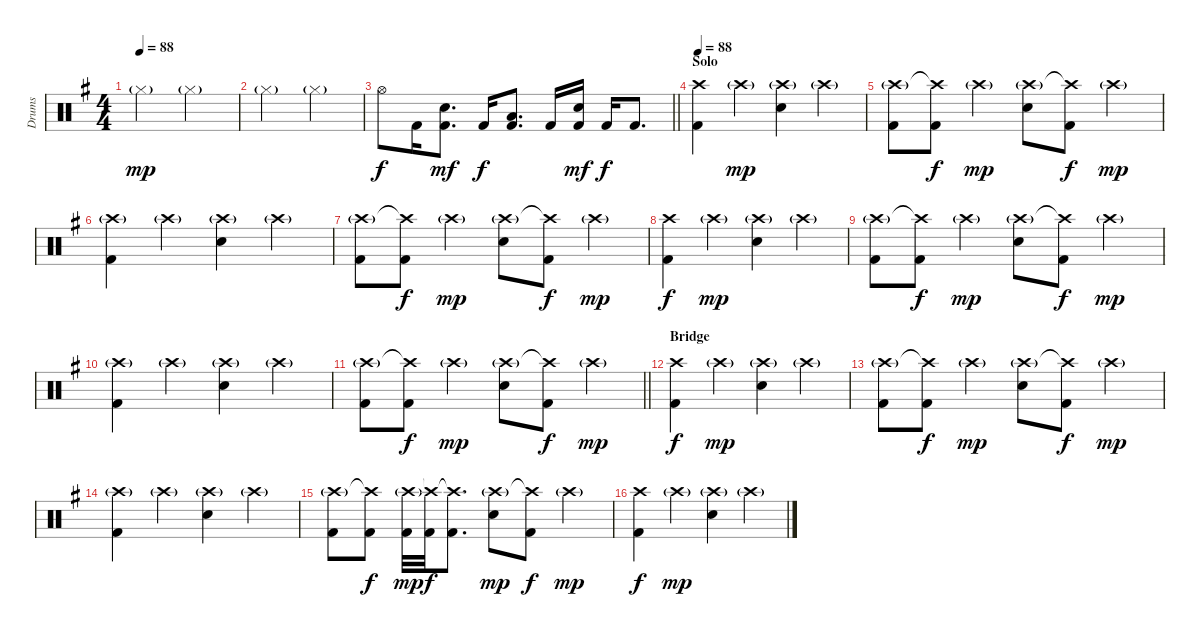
\track ("Drums" "Drums") {instrument percussion}
\staff {score}
\articulation defaults
\ts (4 4)
\tempo 88
\clef neutral
\ks g "Hi-Hat (closed)"{g}.2{dy mp} "Hi-Hat (closed)"{g}.2
|
"Hi-Hat (closed)"{g}.2 "Hi-Hat (closed)"{g}.2 |
\barLineRight lightlight "Hi-Hat (open)".8{dy f} "Kick (hit) 2".16
("Electric Snare (hit)" "Kick (hit) 2").8{d bd 240 dy mf} "Kick (hit) 2".16{dy f} ("Low Floor Tom (hit)" "Kick (hit) 2").8{d bd 240} "Kick (hit) 2".16 ("Electric Snare (hit)" "Kick (hit) 2").16{bd 240 dy mf} "Kick (hit) 2".16{dy f} "Kick (hit) 2".8{d} |
\section ("" "Solo")
\tempo 88
("Crash high (hit)" "Kick (hit) 2").4 "Crash high (hit)"{g}.4{dy mp} ("Crash high (hit)"{g} "Electric Snare (hit)").4 "Crash high (hit)"{g}.4 |
("Crash high (hit)"{g} "Kick (hit) 2").8 ("Crash high (hit)"{t} "Kick (hit) 2").8{dy f} "Crash high (hit)"{g}.4{dy mp} ("Crash high (hit)"{g} "Electric Snare (hit)").8 ("Crash high (hit)"{t} "Kick (hit) 2").8{dy f} "Crash high (hit)"{g}.4{dy mp} |
("Crash high (hit)"{g} "Kick (hit) 2").4 "Crash high (hit)"{g}.4 ("Crash high (hit)"{g} "Electric Snare (hit)").4 "Crash high (hit)"{g}.4 |
("Crash high (hit)"{g} "Kick (hit) 2").8 ("Crash high (hit)"{t} "Kick (hit) 2").8{dy f} "Crash high (hit)"{g}.4{dy mp} ("Crash high (hit)"{g} "Electric Snare (hit)").8 ("Crash high (hit)"{t} "Kick (hit) 2").8{dy f} "Crash high (hit)"{g}.4{dy mp} |
("Crash high (hit)" "Kick (hit) 2").4{dy f} "Crash high (hit)"{g}.4{dy mp} ("Crash high (hit)"{g} "Electric Snare (hit)").4 "Crash high (hit)"{g}.4 |
("Crash high (hit)"{g} "Kick (hit) 2").8 ("Crash high (hit)"{t} "Kick (hit) 2").8{dy f} "Crash high (hit)"{g}.4{dy mp} ("Crash high (hit)"{g} "Electric Snare (hit)").8 ("Crash high (hit)"{t} "Kick (hit) 2").8{dy f} "Crash high (hit)"{g}.4{dy mp} |
("Crash high (hit)"{g} "Kick (hit) 2").4 "Crash high (hit)"{g}.4 ("Crash high (hit)"{g} "Electric Snare (hit)").4 "Crash high (hit)"{g}.4 |
\barLineRight lightlight
("Crash high (hit)"{g} "Kick (hit) 2").8 ("Crash high (hit)"{t} "Kick (hit) 2").8{dy f} "Crash high (hit)"{g}.4{dy mp} ("Crash high (hit)"{g} "Electric Snare (hit)").8 ("Crash high (hit)"{t} "Kick (hit) 2").8{dy f} "Crash high (hit)"{g}.4{dy mp} |
\section ("" "Bridge")
("Crash high (hit)" "Kick (hit) 2").4{dy f} "Crash high (hit)"{g}.4{dy mp} ("Crash high (hit)"{g} "Electric Snare (hit)").4 "Crash high (hit)"{g}.4 |
("Crash high (hit)"{g} "Kick (hit) 2").8 ("Crash high (hit)"{t} "Kick (hit) 2").8{dy f} "Crash high (hit)"{g}.4{dy mp} ("Crash high (hit)"{g} "Electric Snare (hit)").8 ("Crash high (hit)"{t} "Kick (hit) 2").8{dy f} "Crash high (hit)"{g}.4{dy mp} |
("Crash high (hit)"{g} "Kick (hit) 2").4 "Crash high (hit)"{g}.4 ("Crash high (hit)"{g} "Electric Snare (hit)").4 "Crash high (hit)"{g}.4 |
("Crash high (hit)"{g} "Kick (hit) 2").8 ("Crash high (hit)"{t} "Kick (hit) 2").8{dy f} ("Crash high (hit)"{g} "Kick (hit) 2").32{dy mp} ("Crash high (hit)"{t} "Kick (hit) 2").32{dy f} ("Crash high (hit)"{t} "Kick (hit) 2").8{d} ("Crash high (hit)"{g} "Electric Snare (hit)").8{dy mp} ("Crash high (hit)"{t} "Kick (hit) 2").8{dy f} "Crash high (hit)"{g}.4{dy mp} |
("Crash high (hit)" "Kick (hit) 2").4{dy f} "Crash high (hit)"{g}.4{dy mp} ("Crash high (hit)"{g} "Electric Snare (hit)").4 "Crash high (hit)"{g}.4
